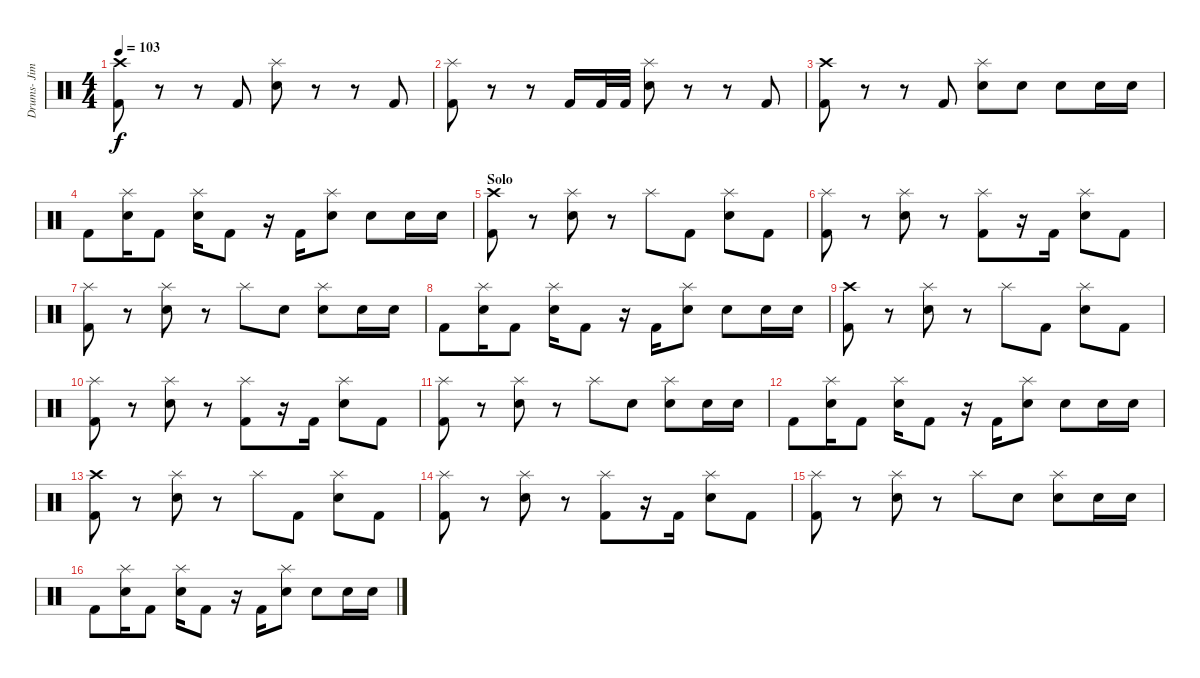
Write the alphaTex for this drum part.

\track ("Drums- Jimmy Bower" "Drums- Jim") {instrument percussion}
\staff {score}
\articulation defaults
\ts (4 4)
\tempo 103
\clef neutral
\ks c
("Crash high (hit)" "Kick (hit) 2").8{dy f} r.8 r.8 "Kick (hit) 2".8 ("Splash (hit)" "Electric Snare (hit)").8 r.8 r.8 "Kick (hit) 2".8 |
("Splash (hit)" "Kick (hit) 2").8 r.8 r.8 "Kick (hit) 2".16 "Kick (hit) 2".32 "Kick (hit) 2".32 ("Splash (hit)" "Electric Snare (hit)").8 r.8 r.8 "Kick (hit) 2".8 |
("Crash high (hit)" "Kick (hit) 2").8 r.8 r.8 "Kick (hit) 2".8 ("Splash (hit)" "Electric Snare (hit)").8 "Electric Snare (hit)".8 "Electric Snare (hit)".8 "Electric Snare (hit)".16 "Electric Snare (hit)".16 |
"Kick (hit) 2".8 ("Splash (hit)" "Electric Snare (hit)").16 "Kick (hit) 2".8 ("Splash (hit)" "Electric Snare (hit)").16 "Kick (hit) 2".8 r.16 "Kick (hit) 2".16 ("Splash (hit)" "Electric Snare (hit)").8 "Electric Snare (hit)".8 "Electric Snare (hit)".16 "Electric Snare (hit)".16 |
\section ("" "Solo")
("Crash high (hit)" "Kick (hit) 2").8 r.8 ("Splash (hit)" "Electric Snare (hit)").8 r.8 "Splash (hit)".8 "Kick (hit) 2".8 ("Splash (hit)" "Electric Snare (hit)").8 "Kick (hit) 2".8 |
("Splash (hit)" "Kick (hit) 2").8 r.8 ("Splash (hit)" "Electric Snare (hit)").8 r.8 ("Splash (hit)" "Kick (hit) 2").8 r.16 "Kick (hit) 2".16 ("Splash (hit)" "Electric Snare (hit)").8 "Kick (hit) 2".8 |
("Splash (hit)" "Kick (hit) 2").8 r.8 ("Splash (hit)" "Electric Snare (hit)").8 r.8 "Splash (hit)".8 "Electric Snare (hit)".8 ("Splash (hit)" "Electric Snare (hit)").8 "Electric Snare (hit)".16 "Electric Snare (hit)".16 |
"Kick (hit) 2".8 ("Splash (hit)" "Electric Snare (hit)").16 "Kick (hit) 2".8 ("Splash (hit)" "Electric Snare (hit)").16 "Kick (hit) 2".8 r.16 "Kick (hit) 2".16 ("Splash (hit)" "Electric Snare (hit)").8 "Electric Snare (hit)".8 "Electric Snare (hit)".16 "Electric Snare (hit)".16 |
("Crash high (hit)" "Kick (hit) 2").8 r.8 ("Splash (hit)" "Electric Snare (hit)").8 r.8 "Splash (hit)".8 "Kick (hit) 2".8 ("Splash (hit)" "Electric Snare (hit)").8 "Kick (hit) 2".8 |
("Splash (hit)" "Kick (hit) 2").8 r.8 ("Splash (hit)" "Electric Snare (hit)").8 r.8 ("Splash (hit)" "Kick (hit) 2").8 r.16 "Kick (hit) 2".16 ("Splash (hit)" "Electric Snare (hit)").8 "Kick (hit) 2".8 |
("Splash (hit)" "Kick (hit) 2").8 r.8 ("Splash (hit)" "Electric Snare (hit)").8 r.8 "Splash (hit)".8 "Electric Snare (hit)".8 ("Splash (hit)" "Electric Snare (hit)").8 "Electric Snare (hit)".16 "Electric Snare (hit)".16 |
"Kick (hit) 2".8 ("Splash (hit)" "Electric Snare (hit)").16 "Kick (hit) 2".8 ("Splash (hit)" "Electric Snare (hit)").16 "Kick (hit) 2".8 r.16 "Kick (hit) 2".16 ("Splash (hit)" "Electric Snare (hit)").8 "Electric Snare (hit)".8 "Electric Snare (hit)".16 "Electric Snare (hit)".16 |
("Crash high (hit)" "Kick (hit) 2").8 r.8 ("Splash (hit)" "Electric Snare (hit)").8 r.8 "Splash (hit)".8 "Kick (hit) 2".8 ("Splash (hit)" "Electric Snare (hit)").8 "Kick (hit) 2".8 |
("Splash (hit)" "Kick (hit) 2").8 r.8 ("Splash (hit)" "Electric Snare (hit)").8 r.8 ("Splash (hit)" "Kick (hit) 2").8 r.16 "Kick (hit) 2".16 ("Splash (hit)" "Electric Snare (hit)").8 "Kick (hit) 2".8 |
("Splash (hit)" "Kick (hit) 2").8 r.8 ("Splash (hit)" "Electric Snare (hit)").8 r.8 "Splash (hit)".8 "Electric Snare (hit)".8 ("Splash (hit)" "Electric Snare (hit)").8 "Electric Snare (hit)".16 "Electric Snare (hit)".16 |
"Kick (hit) 2".8 ("Splash (hit)" "Electric Snare (hit)").16 "Kick (hit) 2".8 ("Splash (hit)" "Electric Snare (hit)").16 "Kick (hit) 2".8 r.16 "Kick (hit) 2".16 ("Splash (hit)" "Electric Snare (hit)").8 "Electric Snare (hit)".8 "Electric Snare (hit)".16 "Electric Snare (hit)".16
